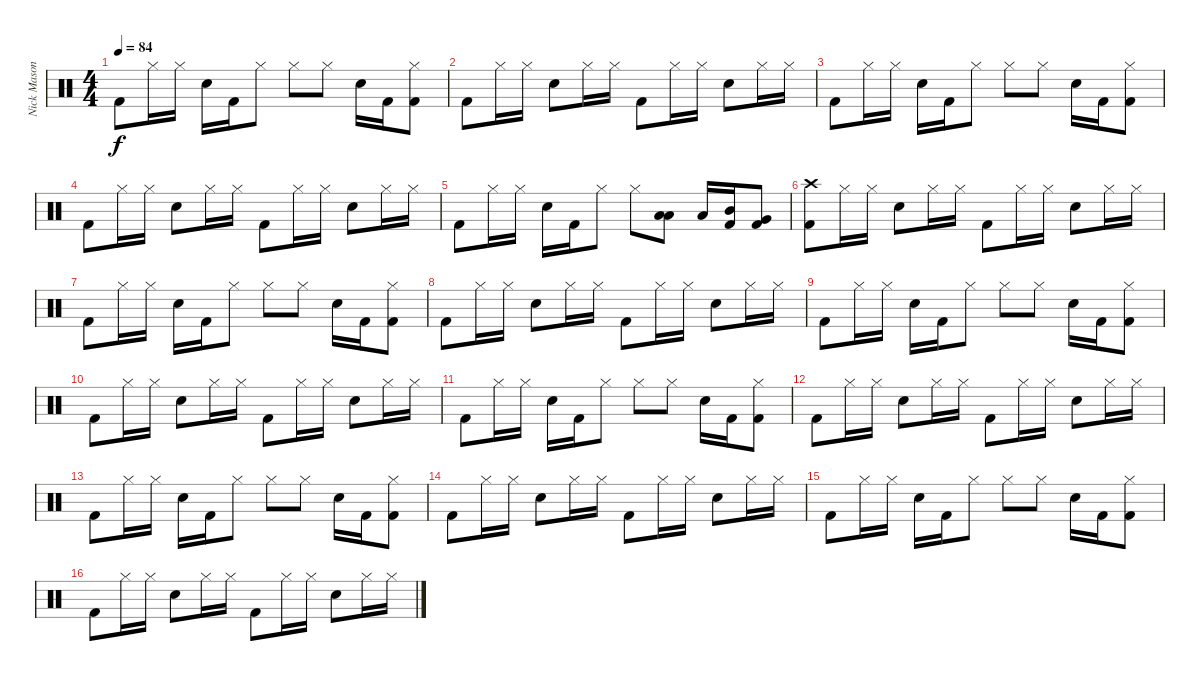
\track ("Nick Mason" "Nick Mason") {instrument percussion}
\staff {score}
\articulation defaults
\ts (4 4)
\tempo 84
\clef neutral
\ks c "Kick (hit) 2".8{dy f} "Hi-Hat (closed)".16 "Hi-Hat (closed)".16 "Snare (hit) 2".16 "Kick (hit) 2".16 "Hi-Hat (closed)".8 "Hi-Hat (closed)".8 "Hi-Hat (closed)".8 "Snare (hit) 2".16 "Kick (hit) 2".16
("Hi-Hat (closed)" "Kick (hit) 2").8 |
"Kick (hit) 2".8 "Hi-Hat (closed)".16 "Hi-Hat (closed)".16 "Snare (hit) 2".8 "Hi-Hat (closed)".16 "Hi-Hat (closed)".16 "Kick (hit) 2".8 "Hi-Hat (closed)".16 "Hi-Hat (closed)".16 "Snare (hit) 2".8 "Hi-Hat (closed)".16 "Hi-Hat (closed)".16 |
"Kick (hit) 2".8 "Hi-Hat (closed)".16 "Hi-Hat (closed)".16 "Snare (hit) 2".16 "Kick (hit) 2".16 "Hi-Hat (closed)".8 "Hi-Hat (closed)".8 "Hi-Hat (closed)".8 "Snare (hit) 2".16 "Kick (hit) 2".16 ("Hi-Hat (closed)" "Kick (hit) 2").8 |
"Kick (hit) 2".8 "Hi-Hat (closed)".16 "Hi-Hat (closed)".16 "Snare (hit) 2".8 "Hi-Hat (closed)".16 "Hi-Hat (closed)".16 "Kick (hit) 2".8 "Hi-Hat (closed)".16 "Hi-Hat (closed)".16 "Snare (hit) 2".8 "Hi-Hat (closed)".16 "Hi-Hat (closed)".16 |
"Kick (hit) 2".8 "Hi-Hat (closed)".16 "Hi-Hat (closed)".16 "Snare (hit) 2".16 "Kick (hit) 2".16 "Hi-Hat (closed)".8 "Hi-Hat (closed)".8 ("Low Tom (hit)" "Low Tom (hit)").8 "Low Tom (hit)".16 ("Mid Tom (hit)" "Kick (hit) 2").16 ("Very Low Tom (hit)" "Kick (hit) 2").8 |
("Crash high (hit)" "Kick (hit) 2").8 "Hi-Hat (closed)".16 "Hi-Hat (closed)".16 "Snare (hit) 2".8 "Hi-Hat (closed)".16 "Hi-Hat (closed)".16 "Kick (hit) 2".8 "Hi-Hat (closed)".16 "Hi-Hat (closed)".16 "Snare (hit) 2".8 "Hi-Hat (closed)".16 "Hi-Hat (closed)".16 |
"Kick (hit) 2".8 "Hi-Hat (closed)".16 "Hi-Hat (closed)".16 "Snare (hit) 2".16 "Kick (hit) 2".16 "Hi-Hat (closed)".8 "Hi-Hat (closed)".8 "Hi-Hat (closed)".8 "Snare (hit) 2".16 "Kick (hit) 2".16 ("Hi-Hat (closed)" "Kick (hit) 2").8 |
"Kick (hit) 2".8 "Hi-Hat (closed)".16 "Hi-Hat (closed)".16 "Snare (hit) 2".8 "Hi-Hat (closed)".16 "Hi-Hat (closed)".16 "Kick (hit) 2".8 "Hi-Hat (closed)".16 "Hi-Hat (closed)".16 "Snare (hit) 2".8 "Hi-Hat (closed)".16 "Hi-Hat (closed)".16 |
"Kick (hit) 2".8 "Hi-Hat (closed)".16 "Hi-Hat (closed)".16 "Snare (hit) 2".16 "Kick (hit) 2".16 "Hi-Hat (closed)".8 "Hi-Hat (closed)".8 "Hi-Hat (closed)".8 "Snare (hit) 2".16 "Kick (hit) 2".16 ("Hi-Hat (closed)" "Kick (hit) 2").8 |
"Kick (hit) 2".8 "Hi-Hat (closed)".16 "Hi-Hat (closed)".16 "Snare (hit) 2".8 "Hi-Hat (closed)".16 "Hi-Hat (closed)".16 "Kick (hit) 2".8 "Hi-Hat (closed)".16 "Hi-Hat (closed)".16 "Snare (hit) 2".8 "Hi-Hat (closed)".16 "Hi-Hat (closed)".16 |
"Kick (hit) 2".8 "Hi-Hat (closed)".16 "Hi-Hat (closed)".16 "Snare (hit) 2".16 "Kick (hit) 2".16 "Hi-Hat (closed)".8 "Hi-Hat (closed)".8 "Hi-Hat (closed)".8 "Snare (hit) 2".16 "Kick (hit) 2".16 ("Hi-Hat (closed)" "Kick (hit) 2").8 |
"Kick (hit) 2".8 "Hi-Hat (closed)".16 "Hi-Hat (closed)".16 "Snare (hit) 2".8 "Hi-Hat (closed)".16 "Hi-Hat (closed)".16 "Kick (hit) 2".8 "Hi-Hat (closed)".16 "Hi-Hat (closed)".16 "Snare (hit) 2".8 "Hi-Hat (closed)".16 "Hi-Hat (closed)".16 |
"Kick (hit) 2".8 "Hi-Hat (closed)".16 "Hi-Hat (closed)".16 "Snare (hit) 2".16 "Kick (hit) 2".16 "Hi-Hat (closed)".8 "Hi-Hat (closed)".8 "Hi-Hat (closed)".8 "Snare (hit) 2".16 "Kick (hit) 2".16 ("Hi-Hat (closed)" "Kick (hit) 2").8 |
"Kick (hit) 2".8 "Hi-Hat (closed)".16 "Hi-Hat (closed)".16 "Snare (hit) 2".8 "Hi-Hat (closed)".16 "Hi-Hat (closed)".16 "Kick (hit) 2".8 "Hi-Hat (closed)".16 "Hi-Hat (closed)".16 "Snare (hit) 2".8 "Hi-Hat (closed)".16 "Hi-Hat (closed)".16 |
"Kick (hit) 2".8 "Hi-Hat (closed)".16 "Hi-Hat (closed)".16 "Snare (hit) 2".16 "Kick (hit) 2".16 "Hi-Hat (closed)".8 "Hi-Hat (closed)".8 "Hi-Hat (closed)".8 "Snare (hit) 2".16 "Kick (hit) 2".16 ("Hi-Hat (closed)" "Kick (hit) 2").8 |
"Kick (hit) 2".8 "Hi-Hat (closed)".16 "Hi-Hat (closed)".16 "Snare (hit) 2".8 "Hi-Hat (closed)".16 "Hi-Hat (closed)".16 "Kick (hit) 2".8 "Hi-Hat (closed)".16 "Hi-Hat (closed)".16 "Snare (hit) 2".8 "Hi-Hat (closed)".16 "Hi-Hat (closed)".16
